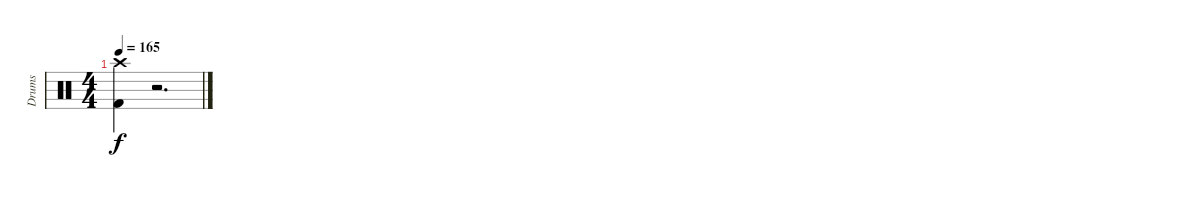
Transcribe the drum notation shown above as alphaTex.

\track ("Drums" "Drums") {instrument percussion}
\staff {score}
\articulation defaults
\ts (4 4)
\tempo 165
\clef neutral
\ks c
("Crash high (hit)" "Kick (hit) 2").4{dy f} r.2{d}
